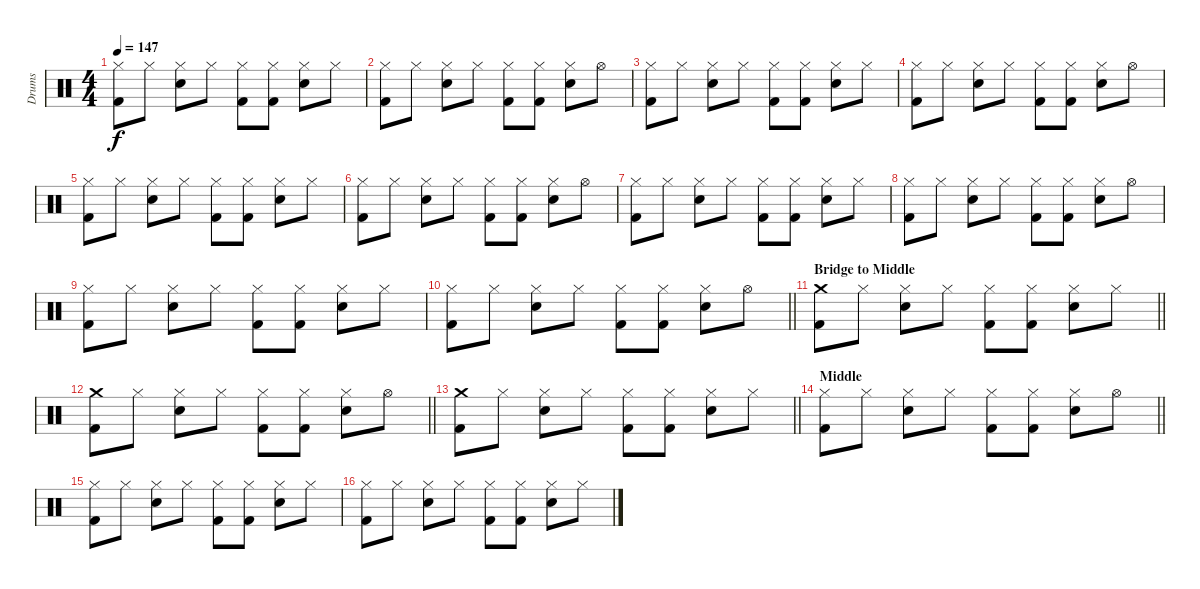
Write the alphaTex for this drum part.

\track ("Drums" "Drums") {instrument percussion}
\staff {score}
\articulation defaults
\ts (4 4)
\tempo 147
\clef neutral
\ks c
("Hi-Hat (closed)" "Kick (hit) 2").8{dy f} "Hi-Hat (closed)".8 ("Hi-Hat (closed)" "Electric Snare (hit)").8 "Hi-Hat (closed)".8 ("Hi-Hat (closed)" "Kick (hit) 2").8 ("Hi-Hat (closed)" "Kick (hit) 2").8 ("Hi-Hat (closed)" "Electric Snare (hit)").8 "Hi-Hat (closed)".8 |
("Hi-Hat (closed)" "Kick (hit) 2").8 "Hi-Hat (closed)".8 ("Hi-Hat (closed)" "Electric Snare (hit)").8 "Hi-Hat (closed)".8 ("Hi-Hat (closed)" "Kick (hit) 2").8 ("Hi-Hat (closed)" "Kick (hit) 2").8 ("Hi-Hat (closed)" "Electric Snare (hit)").8 "Hi-Hat (open)".8 |
("Hi-Hat (closed)" "Kick (hit) 2").8 "Hi-Hat (closed)".8 ("Hi-Hat (closed)" "Electric Snare (hit)").8 "Hi-Hat (closed)".8 ("Hi-Hat (closed)" "Kick (hit) 2").8 ("Hi-Hat (closed)" "Kick (hit) 2").8 ("Hi-Hat (closed)" "Electric Snare (hit)").8 "Hi-Hat (closed)".8 |
("Hi-Hat (closed)" "Kick (hit) 2").8 "Hi-Hat (closed)".8 ("Hi-Hat (closed)" "Electric Snare (hit)").8 "Hi-Hat (closed)".8 ("Hi-Hat (closed)" "Kick (hit) 2").8 ("Hi-Hat (closed)" "Kick (hit) 2").8 ("Hi-Hat (closed)" "Electric Snare (hit)").8 "Hi-Hat (open)".8 |
("Hi-Hat (closed)" "Kick (hit) 2").8 "Hi-Hat (closed)".8 ("Hi-Hat (closed)" "Electric Snare (hit)").8 "Hi-Hat (closed)".8 ("Hi-Hat (closed)" "Kick (hit) 2").8 ("Hi-Hat (closed)" "Kick (hit) 2").8 ("Hi-Hat (closed)" "Electric Snare (hit)").8 "Hi-Hat (closed)".8 |
("Hi-Hat (closed)" "Kick (hit) 2").8 "Hi-Hat (closed)".8 ("Hi-Hat (closed)" "Electric Snare (hit)").8 "Hi-Hat (closed)".8 ("Hi-Hat (closed)" "Kick (hit) 2").8 ("Hi-Hat (closed)" "Kick (hit) 2").8 ("Hi-Hat (closed)" "Electric Snare (hit)").8 "Hi-Hat (open)".8 |
("Hi-Hat (closed)" "Kick (hit) 2").8 "Hi-Hat (closed)".8 ("Hi-Hat (closed)" "Electric Snare (hit)").8 "Hi-Hat (closed)".8 ("Hi-Hat (closed)" "Kick (hit) 2").8 ("Hi-Hat (closed)" "Kick (hit) 2").8 ("Hi-Hat (closed)" "Electric Snare (hit)").8 "Hi-Hat (closed)".8 |
("Hi-Hat (closed)" "Kick (hit) 2").8 "Hi-Hat (closed)".8 ("Hi-Hat (closed)" "Electric Snare (hit)").8 "Hi-Hat (closed)".8 ("Hi-Hat (closed)" "Kick (hit) 2").8 ("Hi-Hat (closed)" "Kick (hit) 2").8 ("Hi-Hat (closed)" "Electric Snare (hit)").8 "Hi-Hat (open)".8 |
("Hi-Hat (closed)" "Kick (hit) 2").8 "Hi-Hat (closed)".8 ("Hi-Hat (closed)" "Electric Snare (hit)").8 "Hi-Hat (closed)".8 ("Hi-Hat (closed)" "Kick (hit) 2").8 ("Hi-Hat (closed)" "Kick (hit) 2").8 ("Hi-Hat (closed)" "Electric Snare (hit)").8 "Hi-Hat (closed)".8 |
\barLineRight lightlight
("Hi-Hat (closed)" "Kick (hit) 2").8 "Hi-Hat (closed)".8 ("Hi-Hat (closed)" "Electric Snare (hit)").8 "Hi-Hat (closed)".8 ("Hi-Hat (closed)" "Kick (hit) 2").8 ("Hi-Hat (closed)" "Kick (hit) 2").8 ("Hi-Hat (closed)" "Electric Snare (hit)").8 "Hi-Hat (open)".8 |
\section ("" "Bridge to Middle")
\barLineRight lightlight
("Crash medium (hit)" "Kick (hit) 2").8 "Hi-Hat (closed)".8 ("Hi-Hat (closed)" "Electric Snare (hit)").8 "Hi-Hat (closed)".8 ("Hi-Hat (closed)" "Kick (hit) 2").8 ("Hi-Hat (closed)" "Kick (hit) 2").8 ("Hi-Hat (closed)" "Electric Snare (hit)").8 "Hi-Hat (closed)".8 |
\barLineRight lightlight
("Crash medium (hit)" "Kick (hit) 2").8 "Hi-Hat (closed)".8 ("Hi-Hat (closed)" "Electric Snare (hit)").8 "Hi-Hat (closed)".8 ("Hi-Hat (closed)" "Kick (hit) 2").8 ("Hi-Hat (closed)" "Kick (hit) 2").8 ("Hi-Hat (closed)" "Electric Snare (hit)").8 "Hi-Hat (open)".8 |
\barLineRight lightlight
("Crash medium (hit)" "Kick (hit) 2").8 "Hi-Hat (closed)".8 ("Hi-Hat (closed)" "Electric Snare (hit)").8 "Hi-Hat (closed)".8 ("Hi-Hat (closed)" "Kick (hit) 2").8 ("Hi-Hat (closed)" "Kick (hit) 2").8 ("Hi-Hat (closed)" "Electric Snare (hit)").8 "Hi-Hat (closed)".8 |
\section ("" "Middle")
\barLineRight lightlight
("Hi-Hat (closed)" "Kick (hit) 2").8 "Hi-Hat (closed)".8 ("Hi-Hat (closed)" "Electric Snare (hit)").8 "Hi-Hat (closed)".8 ("Hi-Hat (closed)" "Kick (hit) 2").8 ("Hi-Hat (closed)" "Kick (hit) 2").8 ("Hi-Hat (closed)" "Electric Snare (hit)").8 "Hi-Hat (open)".8 |
("Hi-Hat (closed)" "Kick (hit) 2").8 "Hi-Hat (closed)".8 ("Hi-Hat (closed)" "Electric Snare (hit)").8 "Hi-Hat (closed)".8 ("Hi-Hat (closed)" "Kick (hit) 2").8 ("Hi-Hat (closed)" "Kick (hit) 2").8 ("Hi-Hat (closed)" "Electric Snare (hit)").8 "Hi-Hat (closed)".8 |
("Hi-Hat (closed)" "Kick (hit) 2").8 "Hi-Hat (closed)".8 ("Hi-Hat (closed)" "Electric Snare (hit)").8 "Hi-Hat (closed)".8 ("Hi-Hat (closed)" "Kick (hit) 2").8 ("Hi-Hat (closed)" "Kick (hit) 2").8 ("Hi-Hat (closed)" "Electric Snare (hit)").8 "Hi-Hat (closed)".8
